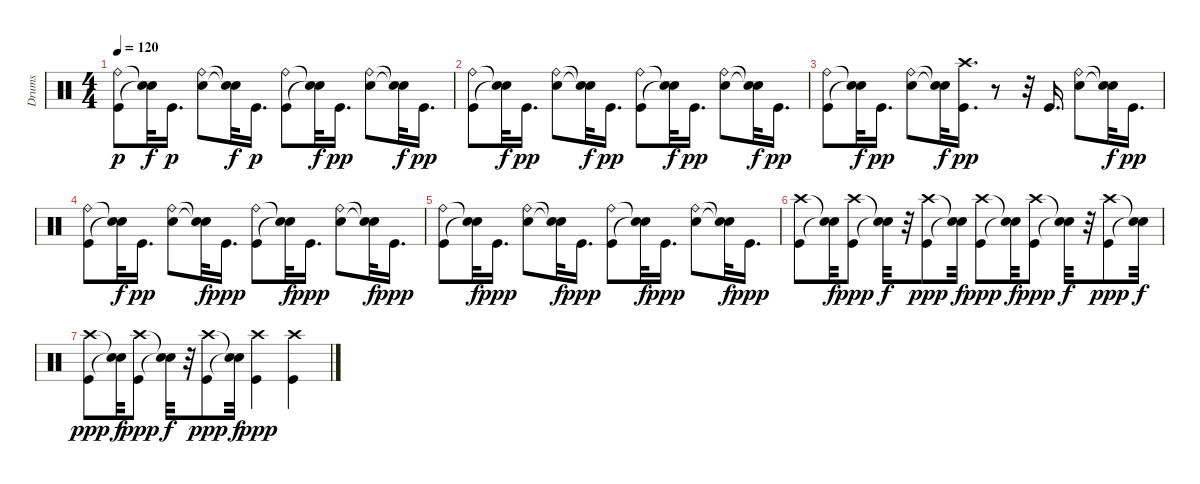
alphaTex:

\track ("Drums" "Drums") {instrument percussion}
\staff {score}
\articulation defaults
\ts (4 4)
\tempo 120
\clef neutral
\ks c
("Kick (hit)" "Ride (bell)").8{dy p} ("Snare (hit)"{t} "Snare (hit)"{t}).32{dy f} "Kick (hit)".16{d dy p} ("Ride (bell)" "Snare (hit) 2").8 ("Snare (hit)"{t} "Snare (hit)"{t}).32{dy f} "Kick (hit)".16{d dy p} ("Ride (bell)" "Kick (hit)").8 ("Snare (hit)"{t} "Snare (hit)"{t}).32{dy f} "Kick (hit)".16{d dy pp} ("Ride (bell)" "Snare (hit) 2").8 ("Snare (hit)"{t} "Snare (hit)"{t}).32{dy f} "Kick (hit)".16{d dy pp} |
("Ride (bell)" "Kick (hit)").8 ("Snare (hit)"{t} "Snare (hit)"{t}).32{dy f} "Kick (hit)".16{d dy pp} ("Snare (hit) 2" "Ride (bell)").8 ("Snare (hit)"{t} "Snare (hit)"{t}).32{dy f} "Kick (hit)".16{d dy pp} ("Ride (bell)" "Kick (hit)").8 ("Snare (hit)"{t} "Snare (hit)"{t}).32{dy f} "Kick (hit)".16{d dy pp} ("Ride (bell)" "Snare (hit) 2").8 ("Snare (hit)"{t} "Snare (hit)"{t}).32{dy f} "Kick (hit)".16{d dy pp} |
("Kick (hit)" "Ride (bell)").8 ("Snare (hit)"{t} "Snare (hit)"{t}).32{dy f} "Kick (hit)".16{d dy pp} ("Snare (hit) 2" "Ride (bell)").8 ("Snare (hit)"{t} "Snare (hit)"{t}).32{dy f} ("Crash high (hit)" "Kick (hit)").16{d dy pp} r.8 r.32 "Kick (hit)".16{d} ("Snare (hit) 2" "Ride (bell)").8 ("Snare (hit)"{t} "Snare (hit)"{t}).32{dy f} "Kick (hit)".16{d dy pp} |
("Ride (bell)" "Kick (hit)").8 ("Snare (hit)"{t} "Snare (hit)"{t}).32{dy f} "Kick (hit)".16{d dy pp} ("Snare (hit) 2" "Ride (bell)").8 ("Snare (hit)"{t} "Snare (hit)"{t}).32{dy f} "Kick (hit)".16{d dy ppp} ("Kick (hit)" "Ride (bell)").8 ("Snare (hit)"{t} "Snare (hit)"{t}).32{dy f} "Kick (hit)".16{d dy ppp} ("Ride (bell)" "Snare (hit) 2").8 ("Snare (hit)"{t} "Snare (hit)"{t}).32{dy f} "Kick (hit)".16{d dy ppp} |
("Ride (bell)" "Kick (hit)").8 ("Snare (hit)"{t} "Snare (hit)"{t}).32{dy f} "Kick (hit)".16{d dy ppp} ("Snare (hit) 2" "Ride (bell)").8 ("Snare (hit)"{t} "Snare (hit)"{t}).32{dy f} "Kick (hit)".16{d dy ppp} ("Ride (bell)" "Kick (hit)").8 ("Snare (hit)"{t} "Snare (hit)"{t}).32{dy f} "Kick (hit)".16{d dy ppp} ("Snare (hit) 2" "Ride (bell)").8 ("Snare (hit)"{t} "Snare (hit)"{t}).32{dy f} "Kick (hit)".16{d dy ppp} |
("Kick (hit)" "Crash high (hit)").8 ("Snare (hit)"{t} "Snare (hit)"{t}).32{dy f} ("Kick (hit)" "Crash high (hit)").8{dy ppp} ("Snare (hit)"{t} "Snare (hit)"{t}).32{dy f} r.32 ("Kick (hit)" "Crash high (hit)").8{dy ppp} ("Snare (hit)"{t} "Snare (hit)"{t}).32{dy f} ("Kick (hit)" "Crash high (hit)").8{dy ppp} ("Snare (hit)"{t} "Snare (hit)"{t}).32{dy f} ("Kick (hit)" "Crash high (hit)").8{dy ppp} ("Snare (hit)"{t} "Snare (hit)"{t}).32{dy f} r.32 ("Kick (hit)" "Crash high (hit)").8{dy ppp} ("Snare (hit)"{t} "Snare (hit)"{t}).32{dy f} |
("Kick (hit)" "Crash high (hit)").8{dy ppp} ("Snare (hit)"{t} "Snare (hit)"{t}).32{dy f} ("Kick (hit)" "Crash high (hit)").8{dy ppp} ("Snare (hit)"{t} "Snare (hit)"{t}).32{dy f} r.32 ("Kick (hit)" "Crash high (hit)").8{dy ppp} ("Snare (hit)"{t} "Snare (hit)"{t}).32{dy f} ("Kick (hit)" "Crash high (hit)").4{dy ppp} ("Kick (hit)" "Crash high (hit)").4
